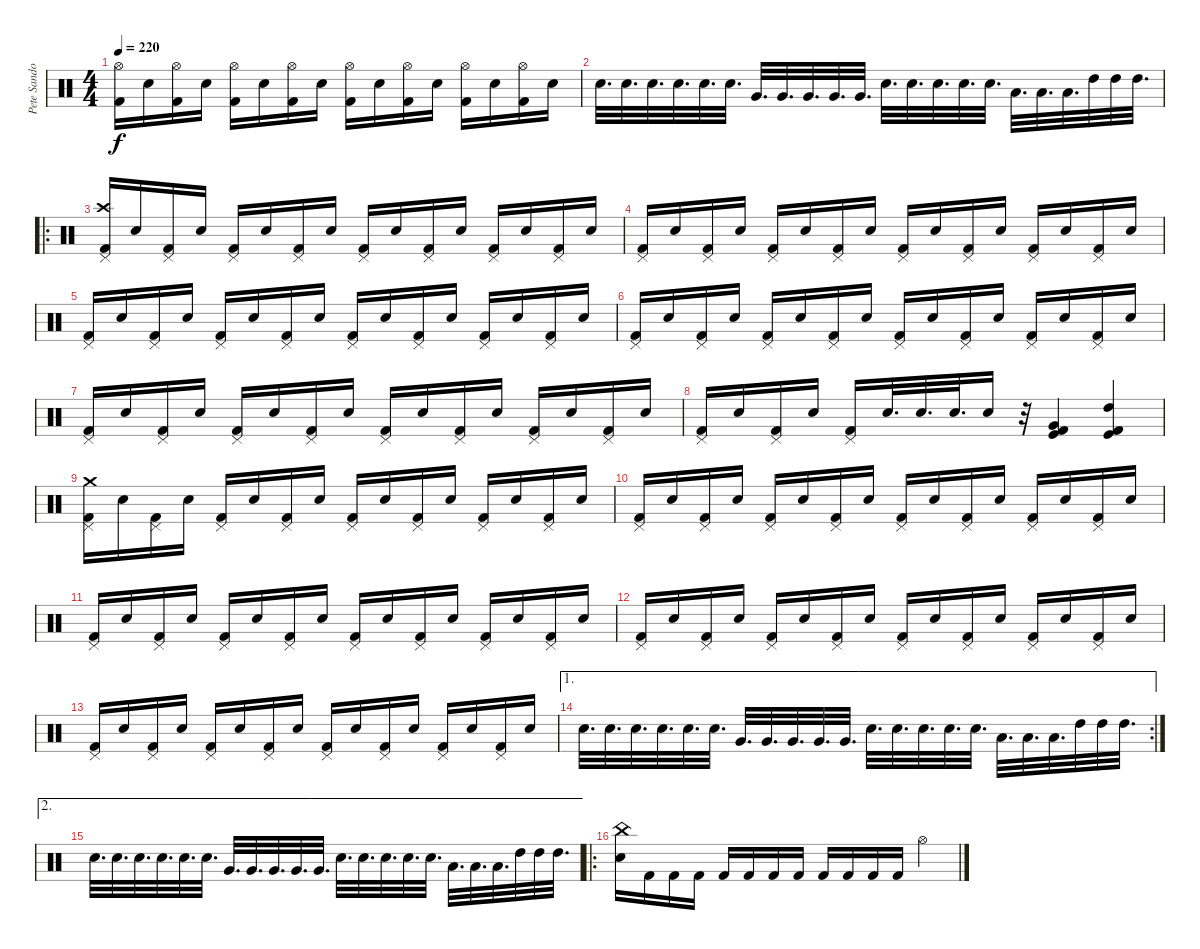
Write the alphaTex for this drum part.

\track ("Pete Sandoval" "Pete Sando") {instrument percussion}
\staff {score}
\articulation defaults
\ts (4 4)
\tempo 220
\clef neutral
\ks c
("Hi-Hat (open)" "Kick (hit) 2").16{dy f} "Electric Snare (hit)".16 ("Hi-Hat (open)" "Kick (hit) 2").16 "Electric Snare (hit)".16 ("Hi-Hat (open)" "Kick (hit) 2").16 "Electric Snare (hit)".16 ("Hi-Hat (open)" "Kick (hit) 2").16 "Electric Snare (hit)".16 ("Hi-Hat (open)" "Kick (hit) 2").16 "Electric Snare (hit)".16 ("Hi-Hat (open)" "Kick (hit) 2").16 "Electric Snare (hit)".16 ("Hi-Hat (open)" "Kick (hit) 2").16 "Electric Snare (hit)".16 ("Hi-Hat (open)" "Kick (hit) 2").16 "Electric Snare (hit)".16 |
"Electric Snare (hit)".32{d} "Electric Snare (hit)".32{d} "Electric Snare (hit)".32{d} "Electric Snare (hit)".32{d} "Electric Snare (hit)".32{d} "Electric Snare (hit)".32{d} "Very Low Tom (hit)".32{d} "Very Low Tom (hit)".32{d} "Very Low Tom (hit)".32{d} "Very Low Tom (hit)".32{d} "Very Low Tom (hit)".32{d} "Electric Snare (hit)".32{d} "Electric Snare (hit)".32{d} "Electric Snare (hit)".32{d} "Electric Snare (hit)".32{d} "Electric Snare (hit)".32{d} "Low Tom (hit)".32{d} "Low Tom (hit)".32{d} "Low Tom (hit)".32{d} "High Tom (hit)".32 "High Tom (hit)".32 "High Tom (hit)".32{d} |
\ro
("Crash high (hit)" "Pedal Hi-Hat (hit)" "Kick (hit) 2").16 "Electric Snare (hit)".16 ("Pedal Hi-Hat (hit)" "Kick (hit) 2").16 "Electric Snare (hit)".16 ("Pedal Hi-Hat (hit)" "Kick (hit) 2").16 "Electric Snare (hit)".16 ("Pedal Hi-Hat (hit)" "Kick (hit) 2").16 "Electric Snare (hit)".16 ("Pedal Hi-Hat (hit)" "Kick (hit) 2").16 "Electric Snare (hit)".16 ("Pedal Hi-Hat (hit)" "Kick (hit) 2").16 "Electric Snare (hit)".16 ("Pedal Hi-Hat (hit)" "Kick (hit) 2").16 "Electric Snare (hit)".16 ("Pedal Hi-Hat (hit)" "Kick (hit) 2").16 "Electric Snare (hit)".16 |
("Pedal Hi-Hat (hit)" "Kick (hit) 2").16 "Electric Snare (hit)".16 ("Pedal Hi-Hat (hit)" "Kick (hit) 2").16 "Electric Snare (hit)".16 ("Pedal Hi-Hat (hit)" "Kick (hit) 2").16 "Electric Snare (hit)".16 ("Pedal Hi-Hat (hit)" "Kick (hit) 2").16 "Electric Snare (hit)".16 ("Pedal Hi-Hat (hit)" "Kick (hit) 2").16 "Electric Snare (hit)".16 ("Pedal Hi-Hat (hit)" "Kick (hit) 2").16 "Electric Snare (hit)".16 ("Pedal Hi-Hat (hit)" "Kick (hit) 2").16 "Electric Snare (hit)".16 ("Pedal Hi-Hat (hit)" "Kick (hit) 2").16 "Electric Snare (hit)".16 |
("Pedal Hi-Hat (hit)" "Kick (hit) 2").16 "Electric Snare (hit)".16 ("Pedal Hi-Hat (hit)" "Kick (hit) 2").16 "Electric Snare (hit)".16 ("Pedal Hi-Hat (hit)" "Kick (hit) 2").16 "Electric Snare (hit)".16 ("Pedal Hi-Hat (hit)" "Kick (hit) 2").16 "Electric Snare (hit)".16 ("Pedal Hi-Hat (hit)" "Kick (hit) 2").16 "Electric Snare (hit)".16 ("Pedal Hi-Hat (hit)" "Kick (hit) 2").16 "Electric Snare (hit)".16 ("Pedal Hi-Hat (hit)" "Kick (hit) 2").16 "Electric Snare (hit)".16 ("Pedal Hi-Hat (hit)" "Kick (hit) 2").16 "Electric Snare (hit)".16 |
("Pedal Hi-Hat (hit)" "Kick (hit) 2").16 "Electric Snare (hit)".16 ("Pedal Hi-Hat (hit)" "Kick (hit) 2").16 "Electric Snare (hit)".16 ("Pedal Hi-Hat (hit)" "Kick (hit) 2").16 "Electric Snare (hit)".16 ("Pedal Hi-Hat (hit)" "Kick (hit) 2").16 "Electric Snare (hit)".16 ("Pedal Hi-Hat (hit)" "Kick (hit) 2").16 "Electric Snare (hit)".16 ("Pedal Hi-Hat (hit)" "Kick (hit) 2").16 "Electric Snare (hit)".16 ("Pedal Hi-Hat (hit)" "Kick (hit) 2").16 "Electric Snare (hit)".16 ("Pedal Hi-Hat (hit)" "Kick (hit) 2").16 "Electric Snare (hit)".16 |
("Pedal Hi-Hat (hit)" "Kick (hit) 2").16 "Electric Snare (hit)".16 ("Pedal Hi-Hat (hit)" "Kick (hit) 2").16 "Electric Snare (hit)".16 ("Pedal Hi-Hat (hit)" "Kick (hit) 2").16 "Electric Snare (hit)".16 ("Pedal Hi-Hat (hit)" "Kick (hit) 2").16 "Electric Snare (hit)".16 ("Pedal Hi-Hat (hit)" "Kick (hit) 2").16 "Electric Snare (hit)".16 ("Pedal Hi-Hat (hit)" "Kick (hit) 2").16 "Electric Snare (hit)".16 ("Pedal Hi-Hat (hit)" "Kick (hit) 2").16 "Electric Snare (hit)".16 ("Pedal Hi-Hat (hit)" "Kick (hit) 2").16 "Electric Snare (hit)".16 |
("Pedal Hi-Hat (hit)" "Kick (hit) 2").16 "Electric Snare (hit)".16 ("Pedal Hi-Hat (hit)" "Kick (hit) 2").16 "Electric Snare (hit)".16 ("Pedal Hi-Hat (hit)" "Kick (hit) 2").16 "Electric Snare (hit)".32{d} "Electric Snare (hit)".32{d} "Electric Snare (hit)".32{d} "Electric Snare (hit)".16 r.32 ("Very Low Tom (hit)" "Kick (hit)" "Kick (hit) 2").4 ("High Tom (hit)" "Kick (hit)" "Kick (hit) 2").4 |
("Crash medium (hit)" "Pedal Hi-Hat (hit)" "Kick (hit) 2").16 "Electric Snare (hit)".16 ("Pedal Hi-Hat (hit)" "Kick (hit) 2").16 "Electric Snare (hit)".16 ("Pedal Hi-Hat (hit)" "Kick (hit) 2").16 "Electric Snare (hit)".16 ("Pedal Hi-Hat (hit)" "Kick (hit) 2").16 "Electric Snare (hit)".16 ("Pedal Hi-Hat (hit)" "Kick (hit) 2").16 "Electric Snare (hit)".16 ("Pedal Hi-Hat (hit)" "Kick (hit) 2").16 "Electric Snare (hit)".16 ("Pedal Hi-Hat (hit)" "Kick (hit) 2").16 "Electric Snare (hit)".16 ("Pedal Hi-Hat (hit)" "Kick (hit) 2").16 "Electric Snare (hit)".16 |
("Pedal Hi-Hat (hit)" "Kick (hit) 2").16 "Electric Snare (hit)".16 ("Pedal Hi-Hat (hit)" "Kick (hit) 2").16 "Electric Snare (hit)".16 ("Pedal Hi-Hat (hit)" "Kick (hit) 2").16 "Electric Snare (hit)".16 ("Pedal Hi-Hat (hit)" "Kick (hit) 2").16 "Electric Snare (hit)".16 ("Pedal Hi-Hat (hit)" "Kick (hit) 2").16 "Electric Snare (hit)".16 ("Pedal Hi-Hat (hit)" "Kick (hit) 2").16 "Electric Snare (hit)".16 ("Pedal Hi-Hat (hit)" "Kick (hit) 2").16 "Electric Snare (hit)".16 ("Pedal Hi-Hat (hit)" "Kick (hit) 2").16 "Electric Snare (hit)".16 |
("Pedal Hi-Hat (hit)" "Kick (hit) 2").16 "Electric Snare (hit)".16 ("Pedal Hi-Hat (hit)" "Kick (hit) 2").16 "Electric Snare (hit)".16 ("Pedal Hi-Hat (hit)" "Kick (hit) 2").16 "Electric Snare (hit)".16 ("Pedal Hi-Hat (hit)" "Kick (hit) 2").16 "Electric Snare (hit)".16 ("Pedal Hi-Hat (hit)" "Kick (hit) 2").16 "Electric Snare (hit)".16 ("Pedal Hi-Hat (hit)" "Kick (hit) 2").16 "Electric Snare (hit)".16 ("Pedal Hi-Hat (hit)" "Kick (hit) 2").16 "Electric Snare (hit)".16 ("Pedal Hi-Hat (hit)" "Kick (hit) 2").16 "Electric Snare (hit)".16 |
("Pedal Hi-Hat (hit)" "Kick (hit) 2").16 "Electric Snare (hit)".16 ("Pedal Hi-Hat (hit)" "Kick (hit) 2").16 "Electric Snare (hit)".16 ("Pedal Hi-Hat (hit)" "Kick (hit) 2").16 "Electric Snare (hit)".16 ("Pedal Hi-Hat (hit)" "Kick (hit) 2").16 "Electric Snare (hit)".16 ("Pedal Hi-Hat (hit)" "Kick (hit) 2").16 "Electric Snare (hit)".16 ("Pedal Hi-Hat (hit)" "Kick (hit) 2").16 "Electric Snare (hit)".16 ("Pedal Hi-Hat (hit)" "Kick (hit) 2").16 "Electric Snare (hit)".16 ("Pedal Hi-Hat (hit)" "Kick (hit) 2").16 "Electric Snare (hit)".16 |
("Pedal Hi-Hat (hit)" "Kick (hit) 2").16 "Electric Snare (hit)".16 ("Pedal Hi-Hat (hit)" "Kick (hit) 2").16 "Electric Snare (hit)".16 ("Pedal Hi-Hat (hit)" "Kick (hit) 2").16 "Electric Snare (hit)".16 ("Pedal Hi-Hat (hit)" "Kick (hit) 2").16 "Electric Snare (hit)".16 ("Pedal Hi-Hat (hit)" "Kick (hit) 2").16 "Electric Snare (hit)".16 ("Pedal Hi-Hat (hit)" "Kick (hit) 2").16 "Electric Snare (hit)".16 ("Pedal Hi-Hat (hit)" "Kick (hit) 2").16 "Electric Snare (hit)".16 ("Pedal Hi-Hat (hit)" "Kick (hit) 2").16 "Electric Snare (hit)".16 |
\ae 1
\rc 2 "Electric Snare (hit)".32{d} "Electric Snare (hit)".32{d} "Electric Snare (hit)".32{d} "Electric Snare (hit)".32{d} "Electric Snare (hit)".32{d} "Electric Snare (hit)".32{d} "Very Low Tom (hit)".32{d} "Very Low Tom (hit)".32{d} "Very Low Tom (hit)".32{d} "Very Low Tom (hit)".32{d} "Very Low Tom (hit)".32{d} "Electric Snare (hit)".32{d} "Electric Snare (hit)".32{d} "Electric Snare (hit)".32{d} "Electric Snare (hit)".32{d} "Electric Snare (hit)".32{d} "Low Tom (hit)".32{d} "Low Tom (hit)".32{d} "Low Tom (hit)".32{d} "High Tom (hit)".32 "High Tom (hit)".32 "High Tom (hit)".32{d}
|
\ae 2 "Electric Snare (hit)".32{d} "Electric Snare (hit)".32{d} "Electric Snare (hit)".32{d} "Electric Snare (hit)".32{d} "Electric Snare (hit)".32{d} "Electric Snare (hit)".32{d} "Very Low Tom (hit)".32{d} "Very Low Tom (hit)".32{d} "Very Low Tom (hit)".32{d} "Very Low Tom (hit)".32{d} "Very Low Tom (hit)".32{d} "Electric Snare (hit)".32{d} "Electric Snare (hit)".32{d} "Electric Snare (hit)".32{d} "Electric Snare (hit)".32{d} "Electric Snare (hit)".32{d} "Low Tom (hit)".32{d} "Low Tom (hit)".32{d} "Low Tom (hit)".32{d} "High Tom (hit)".32 "High Tom (hit)".32 "High Tom (hit)".32{d}
|
\ro
("China (hit)" "Electric Snare (hit)").16 "Kick (hit) 2".16 "Kick (hit) 2".16 "Kick (hit) 2".16 "Kick (hit) 2".16 "Kick (hit) 2".16 "Kick (hit) 2".16 "Kick (hit) 2".16 "Kick (hit) 2".16 "Kick (hit) 2".16 "Kick (hit) 2".16 "Kick (hit) 2".16 "Hi-Hat (open)".4
